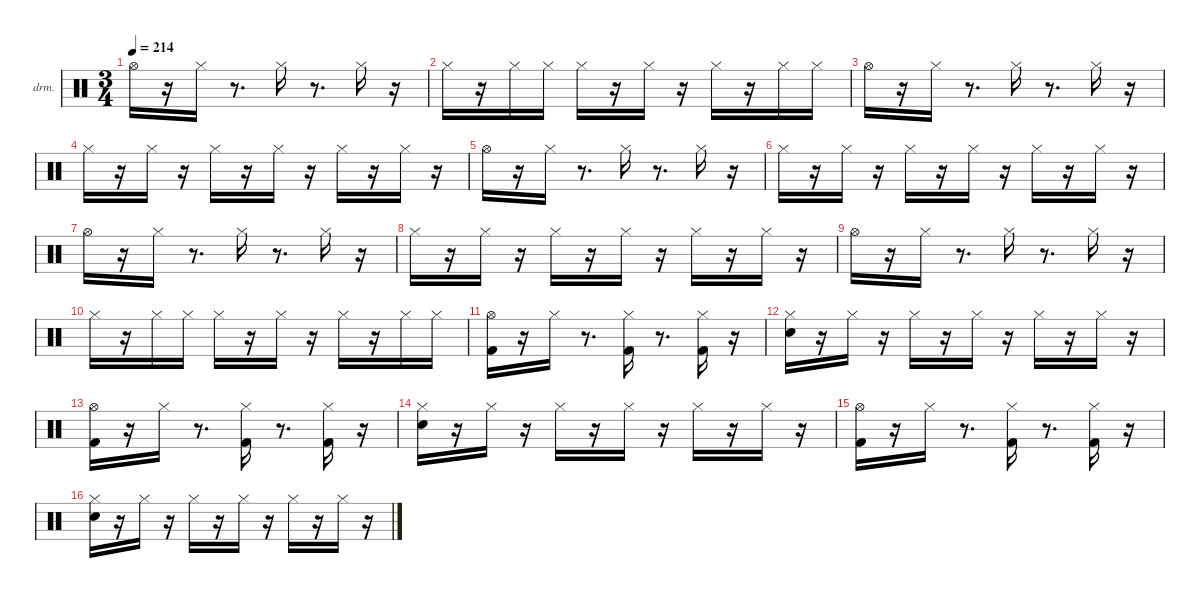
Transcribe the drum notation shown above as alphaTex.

\hideDynamics
\bracketExtendMode nobrackets
\firstSystemTrackNameOrientation horizontal
\track ("EZdrummer 3" "drm.") {instrument percussion}
\staff {score}
\articulation defaults
\ts (3 4)
\tempo 214
\clef neutral
\ks aminor "Hi-Hat (open)"{acc #}.16{dy fff}
r.16 "Hi-Hat (closed)"{acc #}.16{dy ff} r.8{d} "Hi-Hat (closed)"{acc #}.16{dy mp} r.8{d} "Hi-Hat (closed)"{acc #}.16{dy mf} r.16 |
"Hi-Hat (closed)"{acc #}.16{dy ff} r.16 "Hi-Hat (closed)"{acc #}.16{dy p} "Hi-Hat (closed)"{acc #}.16{dy pp} "Hi-Hat (closed)"{acc #}.16{dy ff} r.16 "Hi-Hat (closed)"{acc #}.16{dy ppp} r.16 "Hi-Hat (closed)"{acc #}.16{dy mp} r.16 "Hi-Hat (closed)"{acc #}.16{dy ppp} "Hi-Hat (closed)"{acc #}.16 |
"Hi-Hat (open)"{acc #}.16{dy fff} r.16 "Hi-Hat (closed)"{acc #}.16{dy ff} r.8{d} "Hi-Hat (closed)"{acc #}.16{dy mp} r.8{d} "Hi-Hat (closed)"{acc #}.16{dy mf} r.16 |
"Hi-Hat (closed)"{acc #}.16{dy ff} r.16 "Hi-Hat (closed)"{acc #}.16{dy ppp} r.16 "Hi-Hat (closed)"{acc #}.16{dy mp} r.16 "Hi-Hat (closed)"{acc #}.16{dy ppp} r.16 "Hi-Hat (closed)"{acc #}.16{dy mp} r.16 "Hi-Hat (closed)"{acc #}.16{dy ppp} r.16 |
"Hi-Hat (open)"{acc #}.16{dy fff} r.16 "Hi-Hat (closed)"{acc #}.16{dy ff} r.8{d} "Hi-Hat (closed)"{acc #}.16{dy mp} r.8{d} "Hi-Hat (closed)"{acc #}.16{dy mf} r.16 |
"Hi-Hat (closed)"{acc #}.16{dy ff} r.16 "Hi-Hat (closed)"{acc #}.16{dy ppp} r.16 "Hi-Hat (closed)"{acc #}.16{dy mp} r.16 "Hi-Hat (closed)"{acc #}.16{dy ppp} r.16 "Hi-Hat (closed)"{acc #}.16{dy mp} r.16 "Hi-Hat (closed)"{acc #}.16{dy ppp} r.16 |
"Hi-Hat (open)"{acc #}.16{dy fff} r.16 "Hi-Hat (closed)"{acc #}.16{dy ff} r.8{d} "Hi-Hat (closed)"{acc #}.16{dy mp} r.8{d} "Hi-Hat (closed)"{acc #}.16{dy mf} r.16 |
"Hi-Hat (closed)"{acc #}.16{dy ff} r.16 "Hi-Hat (closed)"{acc #}.16{dy ppp} r.16 "Hi-Hat (closed)"{acc #}.16{dy mp} r.16 "Hi-Hat (closed)"{acc #}.16{dy ppp} r.16 "Hi-Hat (closed)"{acc #}.16{dy mp} r.16 "Hi-Hat (closed)"{acc #}.16{dy ppp} r.16 |
"Hi-Hat (open)"{acc #}.16{dy fff} r.16 "Hi-Hat (closed)"{acc #}.16{dy ff} r.8{d} "Hi-Hat (closed)"{acc #}.16{dy mp} r.8{d} "Hi-Hat (closed)"{acc #}.16{dy mf} r.16 |
"Hi-Hat (closed)"{acc #}.16{dy ff} r.16 "Hi-Hat (closed)"{acc #}.16{dy p} "Hi-Hat (closed)"{acc #}.16{dy pp} "Hi-Hat (closed)"{acc #}.16{dy ff} r.16 "Hi-Hat (closed)"{acc #}.16{dy ppp} r.16 "Hi-Hat (closed)"{acc #}.16{dy mp} r.16 "Hi-Hat (closed)"{acc #}.16{dy ppp} "Hi-Hat (closed)"{acc #}.16 |
("Kick (hit) 2" "Hi-Hat (open)"{acc #}).16{dy ff} r.16 "Hi-Hat (closed)"{acc #}.16 r.8{d} ("Kick (hit) 2" "Hi-Hat (closed)"{acc #}).16{dy mp} r.8{d} ("Kick (hit) 2" "Hi-Hat (closed)"{acc #}).16{dy mf} r.16 |
("Snare (hit) 2" "Hi-Hat (closed)"{acc #}).16{dy ff} r.16 "Hi-Hat (closed)"{acc #}.16{dy ppp} r.16 "Hi-Hat (closed)"{acc #}.16{dy mp} r.16 "Hi-Hat (closed)"{acc #}.16{dy ppp} r.16 "Hi-Hat (closed)"{acc #}.16{dy mp} r.16 "Hi-Hat (closed)"{acc #}.16{dy ppp} r.16 |
("Kick (hit) 2" "Hi-Hat (open)"{acc #}).16{dy ff} r.16 "Hi-Hat (closed)"{acc #}.16 r.8{d} ("Kick (hit) 2" "Hi-Hat (closed)"{acc #}).16{dy mp} r.8{d} ("Kick (hit) 2" "Hi-Hat (closed)"{acc #}).16{dy mf} r.16 |
("Snare (hit) 2" "Hi-Hat (closed)"{acc #}).16{dy ff} r.16 "Hi-Hat (closed)"{acc #}.16{dy ppp} r.16 "Hi-Hat (closed)"{acc #}.16{dy mp} r.16 "Hi-Hat (closed)"{acc #}.16{dy ppp} r.16 "Hi-Hat (closed)"{acc #}.16{dy mp} r.16 "Hi-Hat (closed)"{acc #}.16{dy ppp} r.16 |
("Kick (hit) 2" "Hi-Hat (open)"{acc #}).16{dy ff} r.16 "Hi-Hat (closed)"{acc #}.16 r.8{d} ("Kick (hit) 2" "Hi-Hat (closed)"{acc #}).16{dy p} r.8{d} ("Kick (hit) 2" "Hi-Hat (closed)"{acc #}).16{dy mf} r.16 |
("Snare (hit) 2" "Hi-Hat (closed)"{acc #}).16{dy ff} r.16 "Hi-Hat (closed)"{acc #}.16{dy ppp} r.16 "Hi-Hat (closed)"{acc #}.16{dy mp} r.16 "Hi-Hat (closed)"{acc #}.16{dy ppp} r.16 "Hi-Hat (closed)"{acc #}.16{dy mp} r.16 "Hi-Hat (closed)"{acc #}.16{dy ppp} r.16
